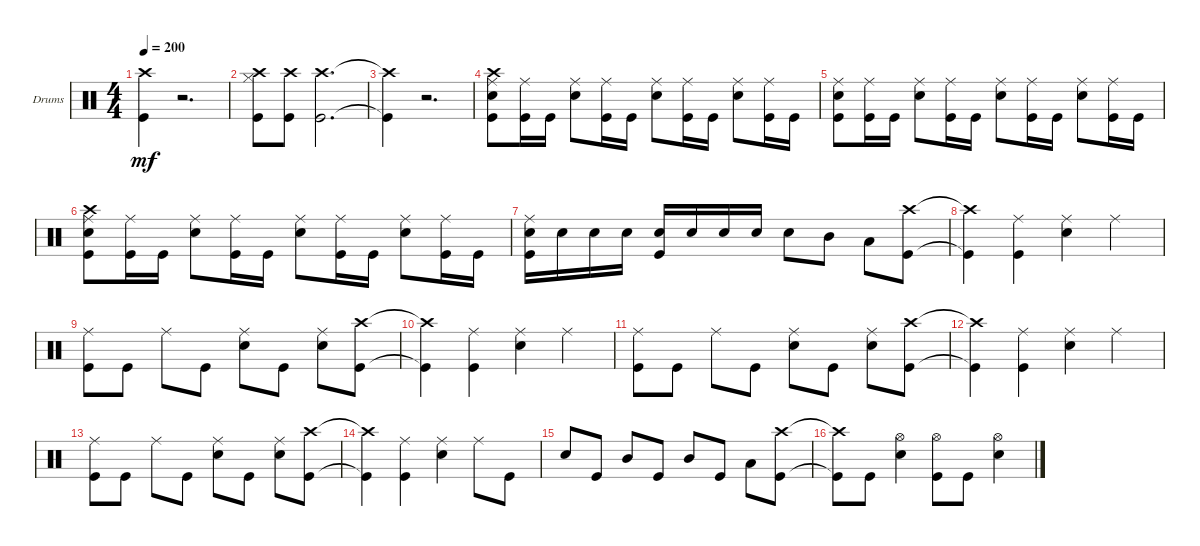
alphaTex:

\bracketExtendMode groupsimilarinstruments
\firstSystemTrackNameOrientation horizontal
\otherSystemsTrackNameOrientation horizontal
\track ("Drums" "Drums") {instrument percussion}
\staff {score}
\articulation defaults
\ts (4 4)
\tempo 200
\clef neutral
\ks c
("Kick (hit)"{t} "Crash high (hit)"{t}).4{dy mf} r.2{d} |
("Kick (hit)" "Hi-Hat (closed)" "Crash high (hit)").8 ("Kick (hit)" "Crash high (hit)").8 ("Kick (hit)" "Crash high (hit)").2{d} |
("Kick (hit)"{t} "Crash high (hit)"{t}).4 r.2{d} |
("Kick (hit)" "Snare (hit) 2" "Ride (middle)" "Crash high (hit)").8 ("Kick (hit)" "Ride (middle)").16 "Kick (hit)".16 ("Snare (hit) 2" "Ride (middle)").8 ("Kick (hit)" "Ride (middle)").16 "Kick (hit)".16 ("Snare (hit) 2" "Ride (middle)").8 ("Kick (hit)" "Ride (middle)").16 "Kick (hit)".16 ("Snare (hit) 2" "Ride (middle)").8 ("Kick (hit)" "Ride (middle)").16 "Kick (hit)".16 |
("Kick (hit)" "Snare (hit) 2" "Ride (middle)").8 ("Kick (hit)" "Ride (middle)").16 "Kick (hit)".16 ("Snare (hit) 2" "Ride (middle)").8 ("Kick (hit)" "Ride (middle)").16 "Kick (hit)".16 ("Snare (hit) 2" "Ride (middle)").8 ("Kick (hit)" "Ride (middle)").16 "Kick (hit)".16 ("Snare (hit) 2" "Ride (middle)").8 ("Kick (hit)" "Ride (middle)").16 "Kick (hit)".16 |
("Kick (hit)" "Snare (hit) 2" "Ride (middle)" "Crash high (hit)").8 ("Kick (hit)" "Ride (middle)").16 "Kick (hit)".16 ("Snare (hit) 2" "Ride (middle)").8 ("Kick (hit)" "Ride (middle)").16 "Kick (hit)".16 ("Snare (hit) 2" "Ride (middle)").8 ("Kick (hit)" "Ride (middle)").16 "Kick (hit)".16 ("Snare (hit) 2" "Ride (middle)").8 ("Kick (hit)" "Ride (middle)").16 "Kick (hit)".16 |
("Kick (hit)" "Snare (hit) 2" "Ride (middle)").16 "Snare (hit) 2".16 "Snare (hit) 2".16 "Snare (hit) 2".16 ("Kick (hit)" "Snare (hit) 2").16 "Snare (hit) 2".16 "Snare (hit) 2".16 "Snare (hit) 2".16 "Snare (hit) 2".8 "Mid Tom (hit)".8 "Low Tom (hit)".8 ("Kick (hit)" "Crash high (hit)").8 |
("Kick (hit)"{t} "Crash high (hit)"{t}).4 ("Kick (hit)" "Ride (middle)").4 ("Snare (hit) 2" "Ride (middle)").4 "Ride (middle)".4 |
("Kick (hit)" "Ride (middle)").8 "Kick (hit)".8 "Ride (middle)".8 "Kick (hit)".8 ("Snare (hit) 2" "Ride (middle)").8 "Kick (hit)".8 ("Snare (hit) 2" "Ride (middle)").8 ("Kick (hit)" "Crash high (hit)").8 |
("Kick (hit)"{t} "Crash high (hit)"{t}).4 ("Kick (hit)" "Ride (middle)").4 ("Snare (hit) 2" "Ride (middle)").4 "Ride (middle)".4 |
("Kick (hit)" "Ride (middle)").8 "Kick (hit)".8 "Ride (middle)".8 "Kick (hit)".8 ("Snare (hit) 2" "Ride (middle)").8 "Kick (hit)".8 ("Snare (hit) 2" "Ride (middle)").8 ("Kick (hit)" "Crash high (hit)").8 |
("Kick (hit)"{t} "Crash high (hit)"{t}).4 ("Kick (hit)" "Ride (middle)").4 ("Snare (hit) 2" "Ride (middle)").4 "Ride (middle)".4 |
("Kick (hit)" "Ride (middle)").8 "Kick (hit)".8 "Ride (middle)".8 "Kick (hit)".8 ("Snare (hit) 2" "Ride (middle)").8 "Kick (hit)".8 ("Snare (hit) 2" "Ride (middle)").8 ("Kick (hit)" "Crash high (hit)").8 |
("Kick (hit)"{t} "Crash high (hit)"{t}).4 ("Kick (hit)" "Ride (middle)").4 ("Snare (hit) 2" "Ride (middle)").4 "Ride (middle)".8 "Kick (hit)".8 |
"Snare (hit) 2".8 "Kick (hit)".8 "Mid Tom (hit)".8 "Kick (hit)".8 "Mid Tom (hit)".8 "Kick (hit)".8 "Low Tom (hit)".8 ("Kick (hit)" "Crash high (hit)").8 |
("Kick (hit)"{t} "Crash high (hit)"{t}).8 "Kick (hit)".8 ("Snare (hit) 2" "Hi-Hat (open)").4 ("Kick (hit)" "Hi-Hat (open)").8 "Kick (hit)".8 ("Snare (hit) 2" "Hi-Hat (open)").4
